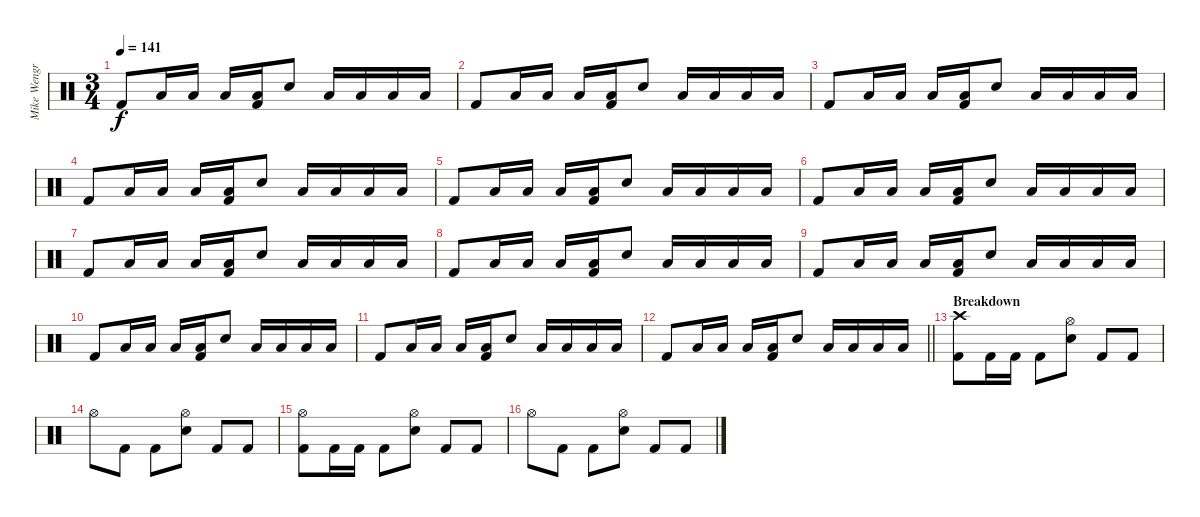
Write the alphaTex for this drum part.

\track ("Mike Wengren (Drums)" "Mike Wengr") {instrument percussion}
\staff {score}
\articulation defaults
\ts (3 4)
\tempo 141
\clef neutral
\ks c "Kick (hit) 2".8{dy f} "Low Tom (hit)".16 "Low Tom (hit)".16 "Low Tom (hit)".16
("Low Tom (hit)" "Kick (hit) 2").16 "Electric Snare (hit)".8 "Low Tom (hit)".16 "Low Tom (hit)".16 "Low Tom (hit)".16 "Low Tom (hit)".16 |
"Kick (hit) 2".8 "Low Tom (hit)".16 "Low Tom (hit)".16 "Low Tom (hit)".16 ("Low Tom (hit)" "Kick (hit) 2").16 "Electric Snare (hit)".8 "Low Tom (hit)".16 "Low Tom (hit)".16 "Low Tom (hit)".16 "Low Tom (hit)".16 |
"Kick (hit) 2".8 "Low Tom (hit)".16 "Low Tom (hit)".16 "Low Tom (hit)".16 ("Low Tom (hit)" "Kick (hit) 2").16 "Electric Snare (hit)".8 "Low Tom (hit)".16 "Low Tom (hit)".16 "Low Tom (hit)".16 "Low Tom (hit)".16 |
"Kick (hit) 2".8 "Low Tom (hit)".16 "Low Tom (hit)".16 "Low Tom (hit)".16 ("Low Tom (hit)" "Kick (hit) 2").16 "Electric Snare (hit)".8 "Low Tom (hit)".16 "Low Tom (hit)".16 "Low Tom (hit)".16 "Low Tom (hit)".16 |
"Kick (hit) 2".8 "Low Tom (hit)".16 "Low Tom (hit)".16 "Low Tom (hit)".16 ("Low Tom (hit)" "Kick (hit) 2").16 "Electric Snare (hit)".8 "Low Tom (hit)".16 "Low Tom (hit)".16 "Low Tom (hit)".16 "Low Tom (hit)".16 |
"Kick (hit) 2".8 "Low Tom (hit)".16 "Low Tom (hit)".16 "Low Tom (hit)".16 ("Low Tom (hit)" "Kick (hit) 2").16 "Electric Snare (hit)".8 "Low Tom (hit)".16 "Low Tom (hit)".16 "Low Tom (hit)".16 "Low Tom (hit)".16 |
"Kick (hit) 2".8 "Low Tom (hit)".16 "Low Tom (hit)".16 "Low Tom (hit)".16 ("Low Tom (hit)" "Kick (hit) 2").16 "Electric Snare (hit)".8 "Low Tom (hit)".16 "Low Tom (hit)".16 "Low Tom (hit)".16 "Low Tom (hit)".16 |
"Kick (hit) 2".8 "Low Tom (hit)".16 "Low Tom (hit)".16 "Low Tom (hit)".16 ("Low Tom (hit)" "Kick (hit) 2").16 "Electric Snare (hit)".8 "Low Tom (hit)".16 "Low Tom (hit)".16 "Low Tom (hit)".16 "Low Tom (hit)".16 |
"Kick (hit) 2".8 "Low Tom (hit)".16 "Low Tom (hit)".16 "Low Tom (hit)".16 ("Low Tom (hit)" "Kick (hit) 2").16 "Electric Snare (hit)".8 "Low Tom (hit)".16 "Low Tom (hit)".16 "Low Tom (hit)".16 "Low Tom (hit)".16 |
"Kick (hit) 2".8 "Low Tom (hit)".16 "Low Tom (hit)".16 "Low Tom (hit)".16 ("Low Tom (hit)" "Kick (hit) 2").16 "Electric Snare (hit)".8 "Low Tom (hit)".16 "Low Tom (hit)".16 "Low Tom (hit)".16 "Low Tom (hit)".16 |
"Kick (hit) 2".8 "Low Tom (hit)".16 "Low Tom (hit)".16 "Low Tom (hit)".16 ("Low Tom (hit)" "Kick (hit) 2").16 "Electric Snare (hit)".8 "Low Tom (hit)".16 "Low Tom (hit)".16 "Low Tom (hit)".16 "Low Tom (hit)".16 |
\barLineRight lightlight "Kick (hit) 2".8 "Low Tom (hit)".16 "Low Tom (hit)".16 "Low Tom (hit)".16
("Low Tom (hit)" "Kick (hit) 2").16 "Electric Snare (hit)".8 "Low Tom (hit)".16 "Low Tom (hit)".16 "Low Tom (hit)".16 "Low Tom (hit)".16 |
\section ("" "Breakdown")
("Crash high (hit)" "Kick (hit) 2").8 "Kick (hit) 2".16 "Kick (hit) 2".16 "Kick (hit) 2".8 ("Hi-Hat (open)" "Electric Snare (hit)").8 "Kick (hit) 2".8 "Kick (hit) 2".8 |
"Hi-Hat (open)".8 "Kick (hit) 2".8 "Kick (hit) 2".8 ("Hi-Hat (open)" "Electric Snare (hit)").8 "Kick (hit) 2".8 "Kick (hit) 2".8 |
("Hi-Hat (open)" "Kick (hit) 2").8 "Kick (hit) 2".16 "Kick (hit) 2".16 "Kick (hit) 2".8 ("Hi-Hat (open)" "Electric Snare (hit)").8 "Kick (hit) 2".8 "Kick (hit) 2".8 |
"Hi-Hat (open)".8 "Kick (hit) 2".8 "Kick (hit) 2".8 ("Hi-Hat (open)" "Electric Snare (hit)").8 "Kick (hit) 2".8 "Kick (hit) 2".8
